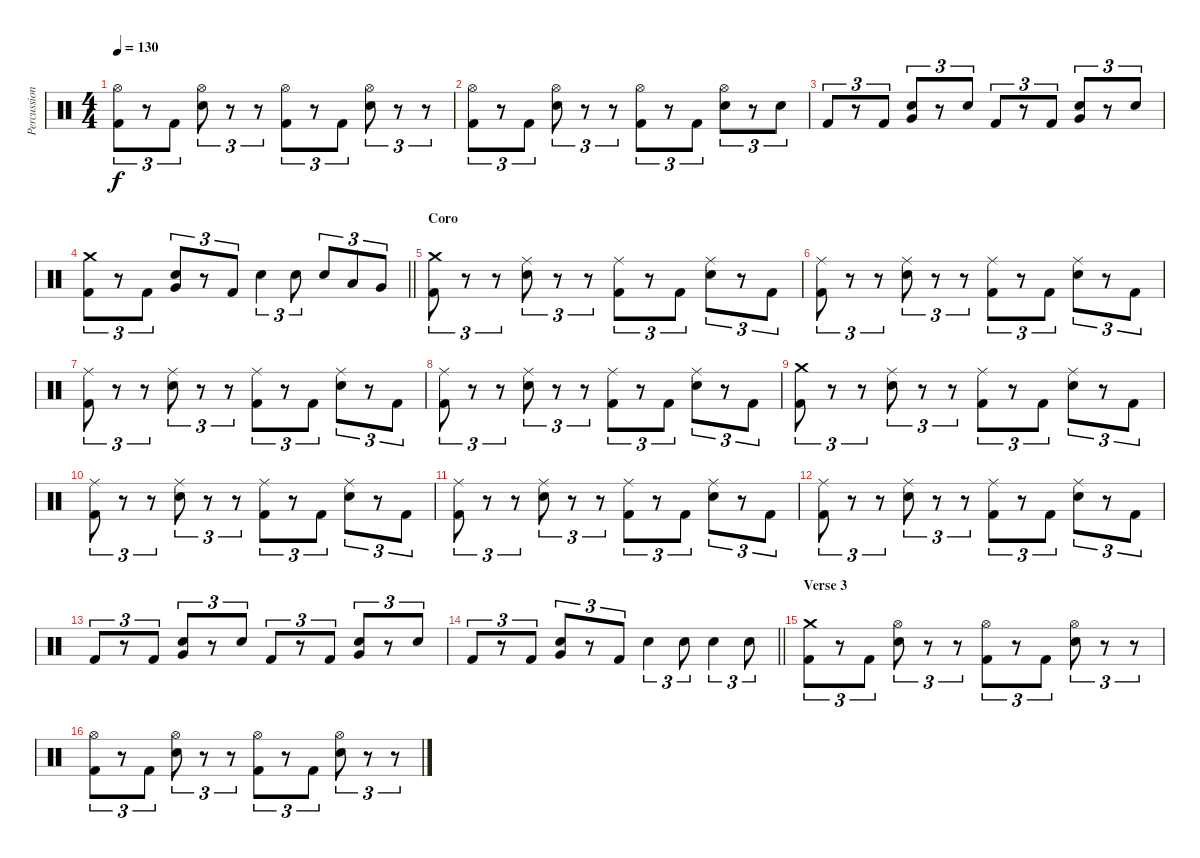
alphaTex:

\track ("Percussion" "Percussion") {instrument percussion}
\staff {score}
\articulation defaults
\ts (4 4)
\tempo 130
\clef neutral
\ks c
("Hi-Hat (open)" "Kick (hit) 2").8{tu (3 2) dy f} r.8{tu (3 2)} "Kick (hit) 2".8{tu (3 2)} ("Hi-Hat (open)" "Snare (hit) 2").8{tu (3 2)} r.8{tu (3 2)} r.8{tu (3 2)} ("Hi-Hat (open)" "Kick (hit) 2").8{tu (3 2)} r.8{tu (3 2)} "Kick (hit) 2".8{tu (3 2)} ("Hi-Hat (open)" "Snare (hit) 2").8{tu (3 2)} r.8{tu (3 2)} r.8{tu (3 2)} |
("Hi-Hat (open)" "Kick (hit) 2").8{tu (3 2)} r.8{tu (3 2)} "Kick (hit) 2".8{tu (3 2)} ("Hi-Hat (open)" "Snare (hit) 2").8{tu (3 2)} r.8{tu (3 2)} r.8{tu (3 2)} ("Hi-Hat (open)" "Kick (hit) 2").8{tu (3 2)} r.8{tu (3 2)} "Kick (hit) 2".8{tu (3 2)} ("Hi-Hat (open)" "Snare (hit) 2").8{tu (3 2)} r.8{tu (3 2)} "Snare (hit) 2".8{tu (3 2)} |
"Kick (hit) 2".8{tu (3 2)} r.8{tu (3 2)} "Kick (hit) 2".8{tu (3 2)} ("Very Low Tom (hit)" "Snare (hit) 2").8{tu (3 2)} r.8{tu (3 2)} "Snare (hit) 2".8{tu (3 2)} "Kick (hit) 2".8{tu (3 2)} r.8{tu (3 2)} "Kick (hit) 2".8{tu (3 2)} ("Very Low Tom (hit)" "Snare (hit) 2").8{tu (3 2)} r.8{tu (3 2)} "Snare (hit) 2".8{tu (3 2)} |
\barLineRight lightlight
("Crash medium (hit)" "Kick (hit) 2").8{tu (3 2)} r.8{tu (3 2)} "Kick (hit) 2".8{tu (3 2)} ("Very Low Tom (hit)" "Snare (hit) 2").8{tu (3 2)} r.8{tu (3 2)} "Kick (hit) 2".8{tu (3 2)} "Snare (hit) 2".4{tu (3 2)} "Snare (hit) 2".8{tu (3 2)} "Snare (hit) 2".8{tu (3 2)} "Low Tom (hit)".8{tu (3 2)} "Very Low Tom (hit)".8{tu (3 2)} |
\section ("" "Coro")
("Crash medium (hit)" "Kick (hit) 2").8{tu (3 2)} r.8{tu (3 2)} r.8{tu (3 2)} ("Ride (middle)" "Snare (hit) 2").8{tu (3 2)} r.8{tu (3 2)} r.8{tu (3 2)} ("Ride (middle)" "Kick (hit) 2").8{tu (3 2)} r.8{tu (3 2)} "Kick (hit) 2".8{tu (3 2)} ("Ride (middle)" "Snare (hit) 2").8{tu (3 2)} r.8{tu (3 2)} "Kick (hit) 2".8{tu (3 2)} |
("Ride (middle)" "Kick (hit) 2").8{tu (3 2)} r.8{tu (3 2)} r.8{tu (3 2)} ("Ride (middle)" "Snare (hit) 2").8{tu (3 2)} r.8{tu (3 2)} r.8{tu (3 2)} ("Ride (middle)" "Kick (hit) 2").8{tu (3 2)} r.8{tu (3 2)} "Kick (hit) 2".8{tu (3 2)} ("Ride (middle)" "Snare (hit) 2").8{tu (3 2)} r.8{tu (3 2)} "Kick (hit) 2".8{tu (3 2)} |
("Ride (middle)" "Kick (hit) 2").8{tu (3 2)} r.8{tu (3 2)} r.8{tu (3 2)} ("Ride (middle)" "Snare (hit) 2").8{tu (3 2)} r.8{tu (3 2)} r.8{tu (3 2)} ("Ride (middle)" "Kick (hit) 2").8{tu (3 2)} r.8{tu (3 2)} "Kick (hit) 2".8{tu (3 2)} ("Ride (middle)" "Snare (hit) 2").8{tu (3 2)} r.8{tu (3 2)} "Kick (hit) 2".8{tu (3 2)} |
("Ride (middle)" "Kick (hit) 2").8{tu (3 2)} r.8{tu (3 2)} r.8{tu (3 2)} ("Ride (middle)" "Snare (hit) 2").8{tu (3 2)} r.8{tu (3 2)} r.8{tu (3 2)} ("Ride (middle)" "Kick (hit) 2").8{tu (3 2)} r.8{tu (3 2)} "Kick (hit) 2".8{tu (3 2)} ("Ride (middle)" "Snare (hit) 2").8{tu (3 2)} r.8{tu (3 2)} "Kick (hit) 2".8{tu (3 2)} |
("Crash medium (hit)" "Kick (hit) 2").8{tu (3 2)} r.8{tu (3 2)} r.8{tu (3 2)} ("Ride (middle)" "Snare (hit) 2").8{tu (3 2)} r.8{tu (3 2)} r.8{tu (3 2)} ("Ride (middle)" "Kick (hit) 2").8{tu (3 2)} r.8{tu (3 2)} "Kick (hit) 2".8{tu (3 2)} ("Ride (middle)" "Snare (hit) 2").8{tu (3 2)} r.8{tu (3 2)} "Kick (hit) 2".8{tu (3 2)} |
("Ride (middle)" "Kick (hit) 2").8{tu (3 2)} r.8{tu (3 2)} r.8{tu (3 2)} ("Ride (middle)" "Snare (hit) 2").8{tu (3 2)} r.8{tu (3 2)} r.8{tu (3 2)} ("Ride (middle)" "Kick (hit) 2").8{tu (3 2)} r.8{tu (3 2)} "Kick (hit) 2".8{tu (3 2)} ("Ride (middle)" "Snare (hit) 2").8{tu (3 2)} r.8{tu (3 2)} "Kick (hit) 2".8{tu (3 2)} |
("Ride (middle)" "Kick (hit) 2").8{tu (3 2)} r.8{tu (3 2)} r.8{tu (3 2)} ("Ride (middle)" "Snare (hit) 2").8{tu (3 2)} r.8{tu (3 2)} r.8{tu (3 2)} ("Ride (middle)" "Kick (hit) 2").8{tu (3 2)} r.8{tu (3 2)} "Kick (hit) 2".8{tu (3 2)} ("Ride (middle)" "Snare (hit) 2").8{tu (3 2)} r.8{tu (3 2)} "Kick (hit) 2".8{tu (3 2)} |
("Ride (middle)" "Kick (hit) 2").8{tu (3 2)} r.8{tu (3 2)} r.8{tu (3 2)} ("Ride (middle)" "Snare (hit) 2").8{tu (3 2)} r.8{tu (3 2)} r.8{tu (3 2)} ("Ride (middle)" "Kick (hit) 2").8{tu (3 2)} r.8{tu (3 2)} "Kick (hit) 2".8{tu (3 2)} ("Ride (middle)" "Snare (hit) 2").8{tu (3 2)} r.8{tu (3 2)} "Kick (hit) 2".8{tu (3 2)} |
"Kick (hit) 2".8{tu (3 2)} r.8{tu (3 2)} "Kick (hit) 2".8{tu (3 2)} ("Very Low Tom (hit)" "Snare (hit) 2").8{tu (3 2)} r.8{tu (3 2)} "Snare (hit) 2".8{tu (3 2)} "Kick (hit) 2".8{tu (3 2)} r.8{tu (3 2)} "Kick (hit) 2".8{tu (3 2)} ("Very Low Tom (hit)" "Snare (hit) 2").8{tu (3 2)} r.8{tu (3 2)} "Snare (hit) 2".8{tu (3 2)} |
\barLineRight lightlight "Kick (hit) 2".8{tu (3 2)}
r.8{tu (3 2)} "Kick (hit) 2".8{tu (3 2)} ("Very Low Tom (hit)" "Snare (hit) 2").8{tu (3 2)} r.8{tu (3 2)} "Kick (hit) 2".8{tu (3 2)} "Snare (hit) 2".4{tu (3 2)} "Snare (hit) 2".8{tu (3 2)} "Snare (hit) 2".4{tu (3 2)} "Snare (hit) 2".8{tu (3 2)} |
\section ("" "Verse 3")
("Crash medium (hit)" "Kick (hit) 2").8{tu (3 2)} r.8{tu (3 2)} "Kick (hit) 2".8{tu (3 2)} ("Hi-Hat (open)" "Snare (hit) 2").8{tu (3 2)} r.8{tu (3 2)} r.8{tu (3 2)} ("Hi-Hat (open)" "Kick (hit) 2").8{tu (3 2)} r.8{tu (3 2)} "Kick (hit) 2".8{tu (3 2)} ("Hi-Hat (open)" "Snare (hit) 2").8{tu (3 2)} r.8{tu (3 2)} r.8{tu (3 2)} |
("Hi-Hat (open)" "Kick (hit) 2").8{tu (3 2)} r.8{tu (3 2)} "Kick (hit) 2".8{tu (3 2)} ("Hi-Hat (open)" "Snare (hit) 2").8{tu (3 2)} r.8{tu (3 2)} r.8{tu (3 2)} ("Hi-Hat (open)" "Kick (hit) 2").8{tu (3 2)} r.8{tu (3 2)} "Kick (hit) 2".8{tu (3 2)} ("Hi-Hat (open)" "Snare (hit) 2").8{tu (3 2)} r.8{tu (3 2)} r.8{tu (3 2)}
